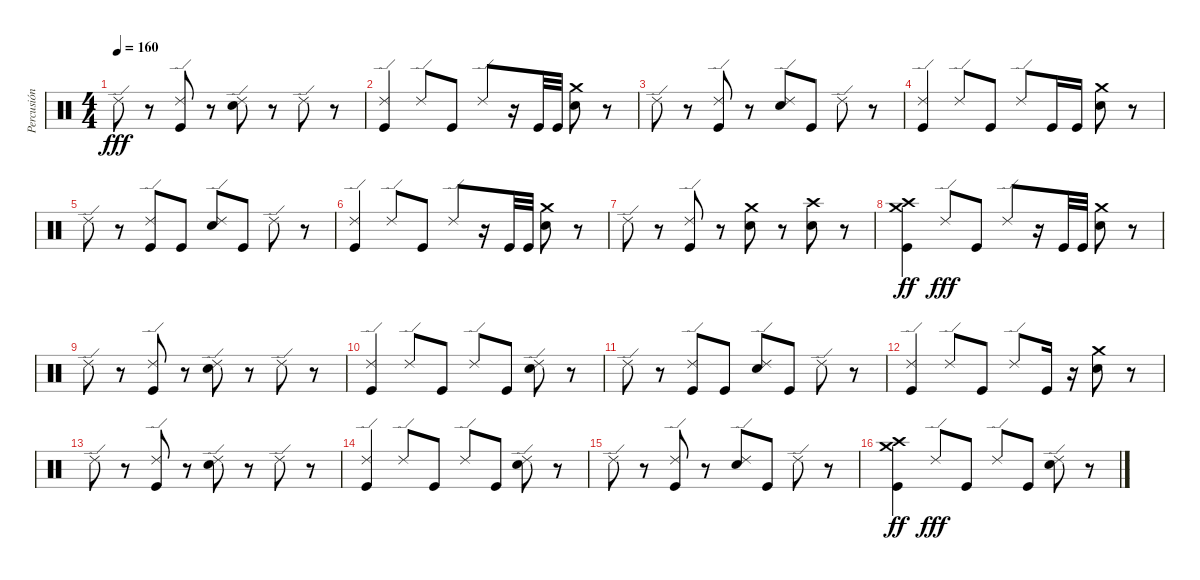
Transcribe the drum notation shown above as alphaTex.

\track ("Percusión" "Percusión") {instrument percussion}
\staff {score}
\articulation defaults
\ts (4 4)
\tempo 160
\clef neutral
\ks c "Ride (edge) 2".8{dy fff}
r.8 ("Kick (hit)" "Ride (edge) 2").8 r.8 ("Electric Snare (hit)" "Ride (edge) 2").8 r.8 "Ride (edge) 2".8 r.8 |
("Kick (hit)" "Ride (edge) 2").4 "Ride (edge) 2".8 "Kick (hit)".8 "Ride (edge) 2".8 r.16 "Kick (hit)".32 "Kick (hit)".32 ("Electric Snare (hit)" "Crash medium (hit)").8 r.8 |
"Ride (edge) 2".8 r.8 ("Kick (hit)" "Ride (edge) 2").8 r.8 ("Electric Snare (hit)" "Ride (edge) 2").8 "Kick (hit)".8 "Ride (edge) 2".8 r.8 |
("Kick (hit)" "Ride (edge) 2").4 "Ride (edge) 2".8 "Kick (hit)".8 "Ride (edge) 2".8 "Kick (hit)".16 "Kick (hit)".16 ("Electric Snare (hit)" "Crash medium (hit)").8 r.8 |
"Ride (edge) 2".8 r.8 ("Kick (hit)" "Ride (edge) 2").8 "Kick (hit)".8 ("Electric Snare (hit)" "Ride (edge) 2").8 "Kick (hit)".8 "Ride (edge) 2".8 r.8 |
("Kick (hit)" "Ride (edge) 2").4 "Ride (edge) 2".8 "Kick (hit)".8 "Ride (edge) 2".8 r.16 "Kick (hit)".32 "Kick (hit)".32 ("Electric Snare (hit)" "Crash medium (hit)").8 r.8 |
"Ride (edge) 2".8 r.8 ("Kick (hit)" "Ride (edge) 2").8 r.8 ("Electric Snare (hit)" "Crash medium (hit)").8 r.8 ("Electric Snare (hit)" "Crash high (hit)").8 r.8 |
("Kick (hit)" "Crash high (hit)" "Crash medium (hit)").4{dy ff} "Ride (edge) 2".8{dy fff} "Kick (hit)".8 "Ride (edge) 2".8 r.16 "Kick (hit)".32 "Kick (hit)".32 ("Electric Snare (hit)" "Crash medium (hit)").8 r.8 |
"Ride (edge) 2".8 r.8 ("Kick (hit)" "Ride (edge) 2").8 r.8 ("Electric Snare (hit)" "Ride (edge) 2").8 r.8 "Ride (edge) 2".8 r.8 |
("Kick (hit)" "Ride (edge) 2").4 "Ride (edge) 2".8 "Kick (hit)".8 "Ride (edge) 2".8 "Kick (hit)".8 ("Electric Snare (hit)" "Ride (edge) 2").8 r.8 |
"Ride (edge) 2".8 r.8 ("Kick (hit)" "Ride (edge) 2").8 "Kick (hit)".8 ("Electric Snare (hit)" "Ride (edge) 2").8 "Kick (hit)".8 "Ride (edge) 2".8 r.8 |
("Kick (hit)" "Ride (edge) 2").4 "Ride (edge) 2".8 "Kick (hit)".8 "Ride (edge) 2".8 "Kick (hit)".16 r.16 ("Electric Snare (hit)" "Crash medium (hit)").8 r.8 |
"Ride (edge) 2".8 r.8 ("Kick (hit)" "Ride (edge) 2").8 r.8 ("Electric Snare (hit)" "Ride (edge) 2").8 r.8 "Ride (edge) 2".8 r.8 |
("Kick (hit)" "Ride (edge) 2").4 "Ride (edge) 2".8 "Kick (hit)".8 "Ride (edge) 2".8 "Kick (hit)".8 ("Electric Snare (hit)" "Ride (edge) 2").8 r.8 |
"Ride (edge) 2".8 r.8 ("Kick (hit)" "Ride (edge) 2").8 r.8 ("Electric Snare (hit)" "Ride (edge) 2").8 "Kick (hit)".8 "Ride (edge) 2".8 r.8 |
("Kick (hit)" "Crash high (hit)" "Crash medium (hit)").4{dy ff} "Ride (edge) 2".8{dy fff} "Kick (hit)".8 "Ride (edge) 2".8 "Kick (hit)".8 ("Electric Snare (hit)" "Ride (edge) 2").8 r.8
